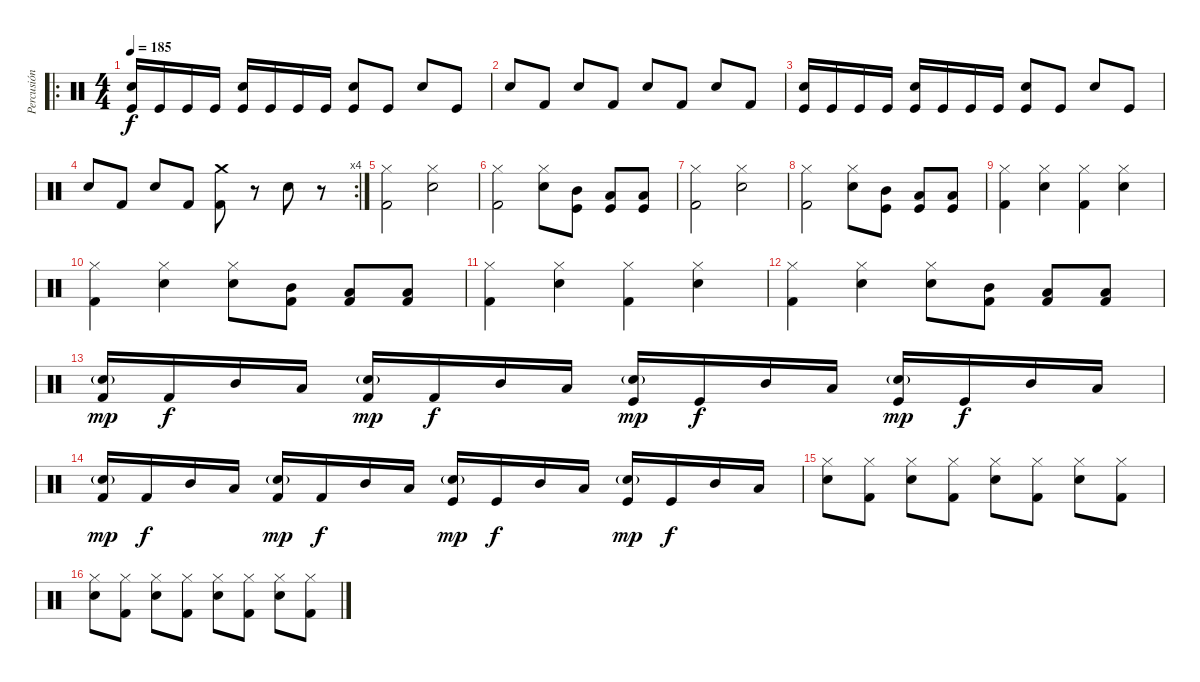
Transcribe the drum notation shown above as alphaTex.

\track ("Percusión" "Percusión") {instrument percussion}
\staff {score}
\articulation defaults
\ro
\ts (4 4)
\tempo 185
\clef neutral
\ks c
("Snare (hit) 2" "Kick (hit)").16{dy f} "Kick (hit)".16 "Kick (hit)".16 "Kick (hit)".16 ("Snare (hit) 2" "Kick (hit)").16 "Kick (hit)".16 "Kick (hit)".16 "Kick (hit)".16 ("Snare (hit) 2" "Kick (hit)").8 "Kick (hit)".8 "Snare (hit) 2".8 "Kick (hit)".8 |
"Snare (hit) 2".8 "Kick (hit) 2".8 "Snare (hit) 2".8 "Kick (hit) 2".8 "Snare (hit) 2".8 "Kick (hit) 2".8 "Snare (hit) 2".8 "Kick (hit) 2".8 |
("Snare (hit) 2" "Kick (hit)").16 "Kick (hit)".16 "Kick (hit)".16 "Kick (hit)".16 ("Snare (hit) 2" "Kick (hit)").16 "Kick (hit)".16 "Kick (hit)".16 "Kick (hit)".16 ("Snare (hit) 2" "Kick (hit)").8 "Kick (hit)".8 "Snare (hit) 2".8 "Kick (hit)".8 |
\rc 4 "Snare (hit) 2".8 "Kick (hit) 2".8 "Snare (hit) 2".8 "Kick (hit) 2".8
("Crash medium (hit)" "Kick (hit) 2").8 r.8 "Snare (hit) 2".8 r.8 |
("Hi-Hat (closed)" "Kick (hit) 2").2 ("Hi-Hat (closed)" "Snare (hit) 2").2 |
("Hi-Hat (closed)" "Kick (hit) 2").2 ("Hi-Hat (closed)" "Snare (hit) 2").8 ("Kick (hit)" "Mid Tom (hit)").8 ("Kick (hit)" "Low Tom (hit)").8 ("Kick (hit)" "Low Tom (hit)").8 |
("Hi-Hat (closed)" "Kick (hit) 2").2 ("Hi-Hat (closed)" "Snare (hit) 2").2 |
("Hi-Hat (closed)" "Kick (hit) 2").2 ("Hi-Hat (closed)" "Snare (hit) 2").8 ("Kick (hit)" "Mid Tom (hit)").8 ("Kick (hit)" "Low Tom (hit)").8 ("Kick (hit)" "Low Tom (hit)").8 |
("Hi-Hat (closed)" "Kick (hit) 2").4 ("Hi-Hat (closed)" "Snare (hit) 2").4 ("Hi-Hat (closed)" "Kick (hit) 2").4 ("Hi-Hat (closed)" "Snare (hit) 2").4 |
("Hi-Hat (closed)" "Kick (hit) 2").4 ("Hi-Hat (closed)" "Snare (hit) 2").4 ("Hi-Hat (closed)" "Snare (hit) 2").8 ("Mid Tom (hit)" "Kick (hit) 2").8 ("Low Tom (hit)" "Kick (hit) 2").8 ("Low Tom (hit)" "Kick (hit) 2").8 |
("Hi-Hat (closed)" "Kick (hit) 2").4 ("Hi-Hat (closed)" "Snare (hit) 2").4 ("Hi-Hat (closed)" "Kick (hit) 2").4 ("Hi-Hat (closed)" "Snare (hit) 2").4 |
("Hi-Hat (closed)" "Kick (hit) 2").4 ("Hi-Hat (closed)" "Snare (hit) 2").4 ("Hi-Hat (closed)" "Snare (hit) 2").8 ("Mid Tom (hit)" "Kick (hit) 2").8 ("Low Tom (hit)" "Kick (hit) 2").8 ("Low Tom (hit)" "Kick (hit) 2").8 |
("Snare (hit) 2"{g} "Kick (hit) 2").16{dy mp} "Kick (hit) 2".16{dy f} "Mid Tom (hit)".16 "Low Tom (hit)".16 ("Snare (hit) 2"{g} "Kick (hit) 2").16{dy mp} "Kick (hit) 2".16{dy f} "Mid Tom (hit)".16 "Low Tom (hit)".16 ("Snare (hit) 2"{g} "Kick (hit)").16{dy mp} "Kick (hit)".16{dy f} "Mid Tom (hit)".16 "Low Tom (hit)".16 ("Snare (hit) 2"{g} "Kick (hit)").16{dy mp} "Kick (hit)".16{dy f} "Mid Tom (hit)".16 "Low Tom (hit)".16 |
("Snare (hit) 2"{g} "Kick (hit) 2").16{dy mp} "Kick (hit) 2".16{dy f} "Mid Tom (hit)".16 "Low Tom (hit)".16 ("Snare (hit) 2"{g} "Kick (hit) 2").16{dy mp} "Kick (hit) 2".16{dy f} "Mid Tom (hit)".16 "Low Tom (hit)".16 ("Snare (hit) 2"{g} "Kick (hit)").16{dy mp} "Kick (hit)".16{dy f} "Mid Tom (hit)".16 "Low Tom (hit)".16 ("Snare (hit) 2"{g} "Kick (hit)").16{dy mp} "Kick (hit)".16{dy f} "Mid Tom (hit)".16 "Low Tom (hit)".16 |
("Hi-Hat (closed)" "Snare (hit) 2").8 ("Hi-Hat (closed)" "Kick (hit) 2").8 ("Hi-Hat (closed)" "Snare (hit) 2").8 ("Hi-Hat (closed)" "Kick (hit) 2").8 ("Hi-Hat (closed)" "Snare (hit) 2").8 ("Hi-Hat (closed)" "Kick (hit) 2").8 ("Hi-Hat (closed)" "Snare (hit) 2").8 ("Hi-Hat (closed)" "Kick (hit) 2").8 |
("Hi-Hat (closed)" "Snare (hit) 2").8 ("Hi-Hat (closed)" "Kick (hit) 2").8 ("Hi-Hat (closed)" "Snare (hit) 2").8 ("Hi-Hat (closed)" "Kick (hit) 2").8 ("Hi-Hat (closed)" "Snare (hit) 2").8 ("Hi-Hat (closed)" "Kick (hit) 2").8 ("Hi-Hat (closed)" "Snare (hit) 2").8 ("Hi-Hat (closed)" "Kick (hit) 2").8
